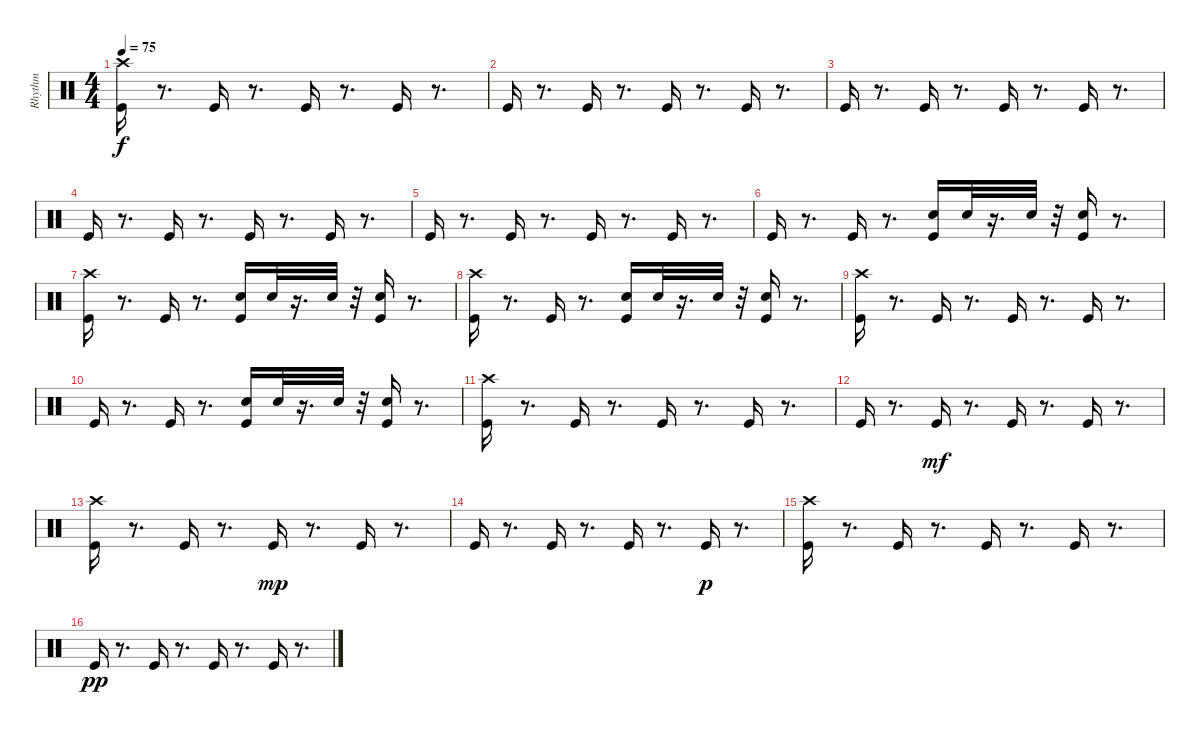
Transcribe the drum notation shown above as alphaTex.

\track ("Rhythm         " "Rhythm    ") {instrument percussion}
\staff {score}
\articulation defaults
\ts (4 4)
\tempo 75
\clef neutral
\ks c
("Crash high (hit)" "Kick (hit)").16{dy f} r.8{d} "Kick (hit)".16 r.8{d} "Kick (hit)".16 r.8{d} "Kick (hit)".16 r.8{d} |
"Kick (hit)".16 r.8{d} "Kick (hit)".16 r.8{d} "Kick (hit)".16 r.8{d} "Kick (hit)".16 r.8{d} |
"Kick (hit)".16 r.8{d} "Kick (hit)".16 r.8{d} "Kick (hit)".16 r.8{d} "Kick (hit)".16 r.8{d} |
"Kick (hit)".16 r.8{d} "Kick (hit)".16 r.8{d} "Kick (hit)".16 r.8{d} "Kick (hit)".16 r.8{d} |
"Kick (hit)".16 r.8{d} "Kick (hit)".16 r.8{d} "Kick (hit)".16 r.8{d} "Kick (hit)".16 r.8{d} |
"Kick (hit)".16 r.8{d} "Kick (hit)".16 r.8{d} ("Snare (hit) 2" "Kick (hit)").16 "Snare (hit) 2".32 r.16{d} "Snare (hit) 2".32 r.32 ("Snare (hit) 2" "Kick (hit)").16 r.8{d} |
("Crash high (hit)" "Kick (hit)").16 r.8{d} "Kick (hit)".16 r.8{d} ("Snare (hit) 2" "Kick (hit)").16 "Snare (hit) 2".32 r.16{d} "Snare (hit) 2".32 r.32 ("Snare (hit) 2" "Kick (hit)").16 r.8{d} |
("Crash high (hit)" "Kick (hit)").16 r.8{d} "Kick (hit)".16 r.8{d} ("Snare (hit) 2" "Kick (hit)").16 "Snare (hit) 2".32 r.16{d} "Snare (hit) 2".32 r.32 ("Snare (hit) 2" "Kick (hit)").16 r.8{d} |
("Crash high (hit)" "Kick (hit)").16 r.8{d} "Kick (hit)".16 r.8{d} "Kick (hit)".16 r.8{d} "Kick (hit)".16 r.8{d} |
"Kick (hit)".16 r.8{d} "Kick (hit)".16 r.8{d} ("Snare (hit) 2" "Kick (hit)").16 "Snare (hit) 2".32 r.16{d} "Snare (hit) 2".32 r.32 ("Snare (hit) 2" "Kick (hit)").16 r.8{d} |
("Crash high (hit)" "Kick (hit)").16 r.8{d} "Kick (hit)".16 r.8{d} "Kick (hit)".16 r.8{d} "Kick (hit)".16 r.8{d} |
"Kick (hit)".16 r.8{d} "Kick (hit)".16{dy mf} r.8{d} "Kick (hit)".16 r.8{d} "Kick (hit)".16 r.8{d} |
("Crash high (hit)" "Kick (hit)").16 r.8{d} "Kick (hit)".16 r.8{d} "Kick (hit)".16{dy mp} r.8{d} "Kick (hit)".16 r.8{d} |
"Kick (hit)".16 r.8{d} "Kick (hit)".16 r.8{d} "Kick (hit)".16 r.8{d} "Kick (hit)".16{dy p} r.8{d} |
("Crash high (hit)" "Kick (hit)").16 r.8{d} "Kick (hit)".16 r.8{d} "Kick (hit)".16 r.8{d} "Kick (hit)".16 r.8{d} |
"Kick (hit)".16{dy pp} r.8{d} "Kick (hit)".16 r.8{d} "Kick (hit)".16 r.8{d} "Kick (hit)".16 r.8{d}
